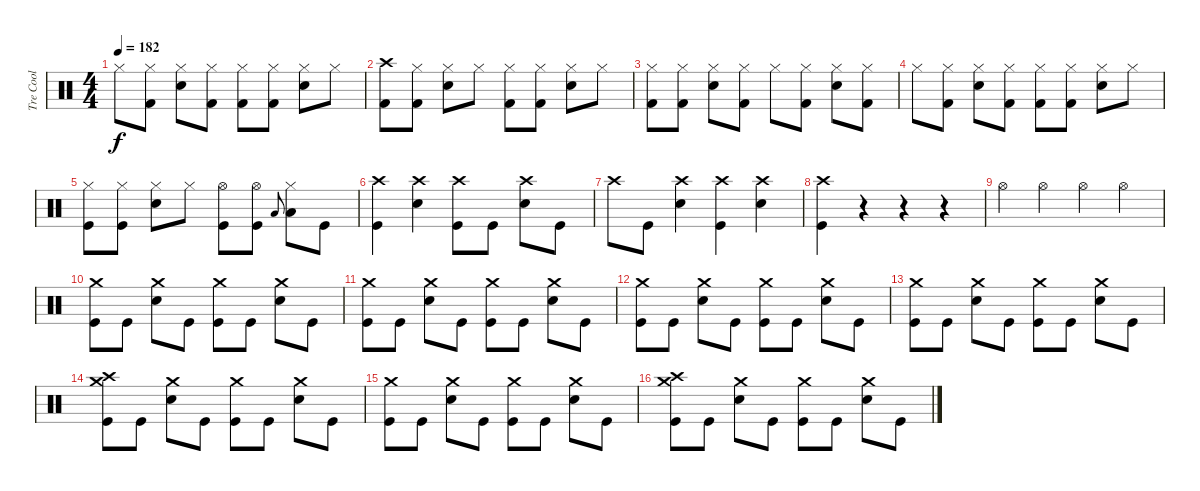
\track ("Tre Cool" "Tre Cool") {instrument percussion}
\staff {score}
\articulation defaults
\ts (4 4)
\tempo 182
\clef neutral
\ks c "Hi-Hat (closed)".8{dy f}
("Hi-Hat (closed)" "Kick (hit) 2").8 ("Hi-Hat (closed)" "Snare (hit) 2").8 ("Hi-Hat (closed)" "Kick (hit) 2").8 ("Hi-Hat (closed)" "Kick (hit) 2").8 ("Hi-Hat (closed)" "Kick (hit) 2").8 ("Hi-Hat (closed)" "Snare (hit) 2").8 "Hi-Hat (closed)".8 |
("Crash high (hit)" "Kick (hit) 2").8 ("Hi-Hat (closed)" "Kick (hit) 2").8 ("Hi-Hat (closed)" "Snare (hit) 2").8 "Hi-Hat (closed)".8 ("Hi-Hat (closed)" "Kick (hit) 2").8 ("Hi-Hat (closed)" "Kick (hit) 2").8 ("Hi-Hat (closed)" "Snare (hit) 2").8 "Hi-Hat (closed)".8 |
("Hi-Hat (closed)" "Kick (hit) 2").8 ("Hi-Hat (closed)" "Kick (hit) 2").8 ("Hi-Hat (closed)" "Snare (hit) 2").8 ("Hi-Hat (closed)" "Kick (hit) 2").8 "Hi-Hat (closed)".8 ("Hi-Hat (closed)" "Kick (hit) 2").8 ("Hi-Hat (closed)" "Snare (hit) 2").8 ("Hi-Hat (closed)" "Kick (hit) 2").8 |
"Hi-Hat (closed)".8 ("Hi-Hat (closed)" "Kick (hit) 2").8 ("Hi-Hat (closed)" "Snare (hit) 2").8 ("Hi-Hat (closed)" "Kick (hit) 2").8 ("Hi-Hat (closed)" "Kick (hit) 2").8 ("Hi-Hat (closed)" "Kick (hit) 2").8 ("Hi-Hat (closed)" "Snare (hit) 2").8 "Hi-Hat (closed)".8 |
("Hi-Hat (closed)" "Kick (hit)").8 ("Hi-Hat (closed)" "Kick (hit)").8 ("Hi-Hat (closed)" "Snare (hit) 2").8 "Hi-Hat (closed)".8 ("Hi-Hat (open)" "Kick (hit)").8 ("Hi-Hat (open)" "Kick (hit)").8 "Low Tom (hit)".8{gr onbeat} ("Hi-Hat (closed)" "Low Tom (hit)").8 "Kick (hit)".8 |
("Crash high (hit)" "Kick (hit)").4 ("Crash high (hit)" "Electric Snare (hit)").4 ("Crash high (hit)" "Kick (hit)").8 "Kick (hit)".8 ("Crash high (hit)" "Electric Snare (hit)").8 "Kick (hit)".8 |
"Crash high (hit)".8 "Kick (hit)".8 ("Crash high (hit)" "Electric Snare (hit)").4 ("Crash high (hit)" "Kick (hit)").4 ("Crash high (hit)" "Electric Snare (hit)").4 |
("Crash high (hit)" "Kick (hit)").4 r.4 r.4 r.4 |
"Hi-Hat (open)".4 "Hi-Hat (open)".4 "Hi-Hat (open)".4 "Hi-Hat (open)".4 |
("Crash medium (hit)" "Kick (hit)").8 "Kick (hit)".8 ("Crash medium (hit)" "Snare (hit) 2").8 "Kick (hit)".8 ("Crash medium (hit)" "Kick (hit)").8 "Kick (hit)".8 ("Crash medium (hit)" "Snare (hit) 2").8 "Kick (hit)".8 |
("Crash medium (hit)" "Kick (hit)").8 "Kick (hit)".8 ("Crash medium (hit)" "Snare (hit) 2").8 "Kick (hit)".8 ("Crash medium (hit)" "Kick (hit)").8 "Kick (hit)".8 ("Crash medium (hit)" "Snare (hit) 2").8 "Kick (hit)".8 |
("Crash medium (hit)" "Kick (hit)").8 "Kick (hit)".8 ("Crash medium (hit)" "Snare (hit) 2").8 "Kick (hit)".8 ("Crash medium (hit)" "Kick (hit)").8 "Kick (hit)".8 ("Crash medium (hit)" "Snare (hit) 2").8 "Kick (hit)".8 |
("Crash medium (hit)" "Kick (hit)").8 "Kick (hit)".8 ("Crash medium (hit)" "Snare (hit) 2").8 "Kick (hit)".8 ("Crash medium (hit)" "Kick (hit)").8 "Kick (hit)".8 ("Crash medium (hit)" "Snare (hit) 2").8 "Kick (hit)".8 |
("Crash medium (hit)" "Crash high (hit)" "Kick (hit)").8 "Kick (hit)".8 ("Crash medium (hit)" "Snare (hit) 2").8 "Kick (hit)".8 ("Crash medium (hit)" "Kick (hit)").8 "Kick (hit)".8 ("Crash medium (hit)" "Snare (hit) 2").8 "Kick (hit)".8 |
("Crash medium (hit)" "Kick (hit)").8 "Kick (hit)".8 ("Crash medium (hit)" "Snare (hit) 2").8 "Kick (hit)".8 ("Crash medium (hit)" "Kick (hit)").8 "Kick (hit)".8 ("Crash medium (hit)" "Snare (hit) 2").8 "Kick (hit)".8 |
("Crash medium (hit)" "Crash high (hit)" "Kick (hit)").8 "Kick (hit)".8 ("Crash medium (hit)" "Snare (hit) 2").8 "Kick (hit)".8 ("Crash medium (hit)" "Kick (hit)").8 "Kick (hit)".8 ("Crash medium (hit)" "Snare (hit) 2").8 "Kick (hit)".8
